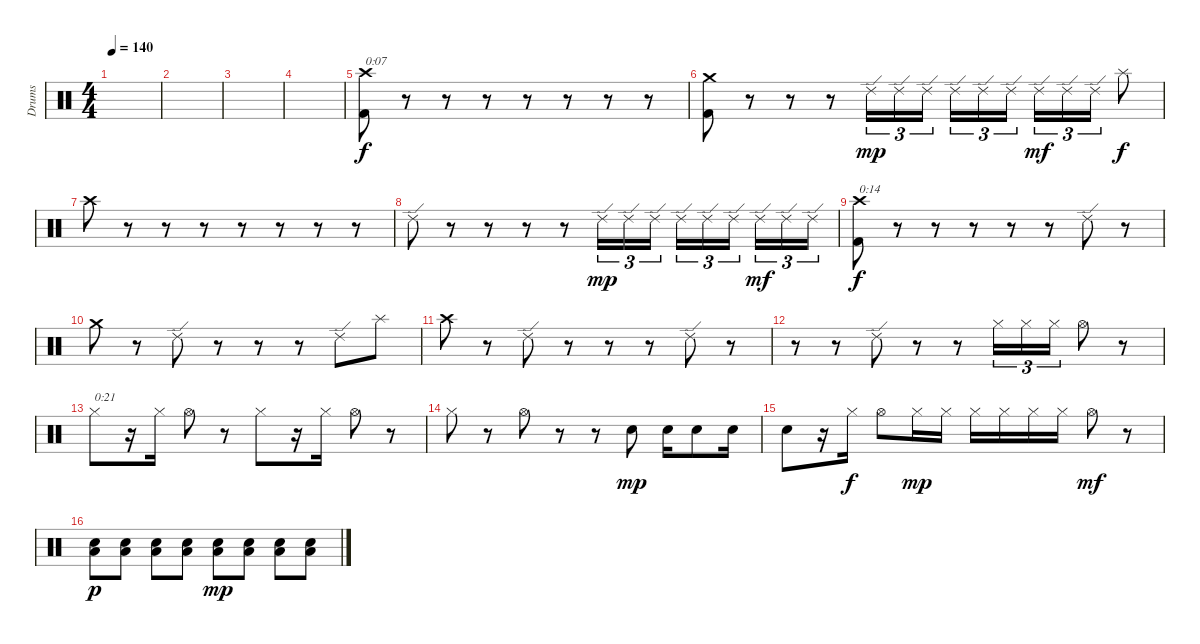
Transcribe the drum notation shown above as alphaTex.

\track ("Drums" "Drums") {instrument percussion}
\staff {score}
\articulation defaults
\ts (4 4)
\tempo 140
\clef neutral
\ks c
|
|
|
|
("Crash high (hit)" "Kick (hit) 2").8{txt "0:07"} r.8 r.8 r.8 r.8 r.8 r.8 r.8 |
("Crash medium (hit)" "Kick (hit) 2").8 r.8 r.8 r.8 "Ride (edge) 2".16{tu (3 2) dy mp} "Ride (edge) 2".16{tu (3 2)} "Ride (edge) 2".16{tu (3 2)} "Ride (edge) 2".16{tu (3 2)} "Ride (edge) 2".16{tu (3 2)} "Ride (edge) 2".16{tu (3 2)} "Ride (edge) 2".16{tu (3 2) dy mf} "Ride (edge) 2".16{tu (3 2)} "Ride (edge) 2".16{tu (3 2)} "Splash (hit)".8{dy f} |
"Crash high (hit)".8 r.8 r.8 r.8 r.8 r.8 r.8 r.8 |
"Ride (edge) 2".8 r.8 r.8 r.8 r.8 "Ride (edge) 2".16{tu (3 2) dy mp} "Ride (edge) 2".16{tu (3 2)} "Ride (edge) 2".16{tu (3 2)} "Ride (edge) 2".16{tu (3 2)} "Ride (edge) 2".16{tu (3 2)} "Ride (edge) 2".16{tu (3 2)} "Ride (edge) 2".16{tu (3 2) dy mf} "Ride (edge) 2".16{tu (3 2)} "Ride (edge) 2".16{tu (3 2)} |
("Crash high (hit)" "Kick (hit) 2").8{txt "0:14" dy f} r.8 r.8 r.8 r.8 r.8 "Ride (edge) 2".8 r.8 |
"Crash medium (hit)".8 r.8 "Ride (edge) 2".8 r.8 r.8 r.8 "Ride (edge) 2".8 "Splash (hit)".8 |
"Crash high (hit)".8 r.8 "Ride (edge) 2".8 r.8 r.8 r.8 "Ride (edge) 2".8 r.8 |
r.8 r.8 "Ride (edge) 2".8 r.8 r.8 "Hi-Hat (closed)".16{tu (3 2)} "Hi-Hat (closed)".16{tu (3 2)} "Hi-Hat (closed)".16{tu (3 2)} "Hi-Hat (open)".8 r.8 |
"Hi-Hat (closed)".8{txt "0:21"} r.16 "Hi-Hat (closed)".16 "Hi-Hat (open)".8 r.8 "Hi-Hat (closed)".8 r.16 "Hi-Hat (closed)".16 "Hi-Hat (open)".8 r.8 |
"Hi-Hat (closed)".8 r.8 "Hi-Hat (open)".8 r.8 r.8 "Snare (hit) 2".8{dy mp} "Snare (hit) 2".16 "Snare (hit) 2".8 "Snare (hit) 2".16 |
"Snare (hit) 2".8 r.16 "Hi-Hat (closed)".16{dy f} "Hi-Hat (open)".8 "Hi-Hat (closed)".16{dy mp} "Hi-Hat (closed)".16 "Hi-Hat (closed)".16 "Hi-Hat (closed)".16 "Hi-Hat (closed)".16 "Hi-Hat (closed)".16 "Hi-Hat (open)".8{dy mf} r.8 |
("Low Floor Tom (hit)" "Snare (hit) 2").8{dy p} ("Low Floor Tom (hit)" "Snare (hit) 2").8 ("Low Floor Tom (hit)" "Snare (hit) 2").8 ("Low Floor Tom (hit)" "Snare (hit) 2").8 ("Low Floor Tom (hit)" "Snare (hit) 2").8{dy mp} ("Low Floor Tom (hit)" "Snare (hit) 2").8 ("Low Floor Tom (hit)" "Snare (hit) 2").8 ("Low Floor Tom (hit)" "Snare (hit) 2").8
